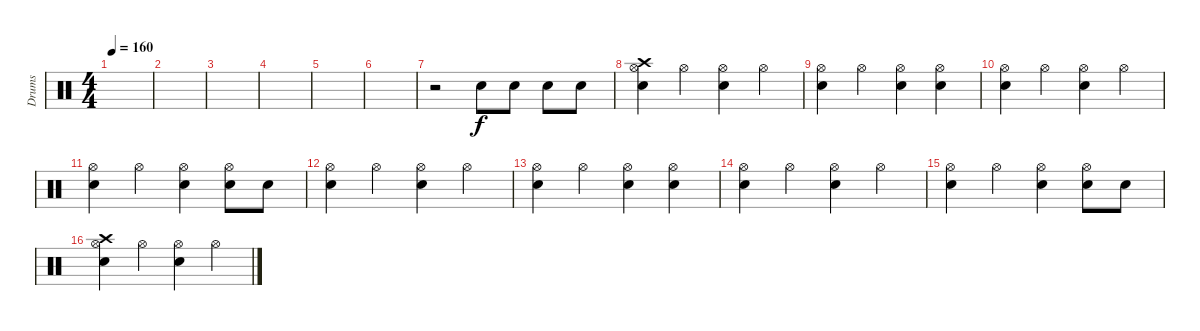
\track ("Drums" "Drums") {instrument percussion}
\staff {score}
\articulation defaults
\ts (4 4)
\tempo 160
\clef neutral
\ks c
|
|
|
|
|
|
r.2 "Electric Snare (hit)".8 "Electric Snare (hit)".8 "Electric Snare (hit)".8 "Electric Snare (hit)".8 |
("Crash high (hit)" "Hi-Hat (open)" "Electric Snare (hit)").4 "Hi-Hat (open)".4 ("Hi-Hat (open)" "Electric Snare (hit)").4 "Hi-Hat (open)".4 |
("Hi-Hat (open)" "Electric Snare (hit)").4 "Hi-Hat (open)".4 ("Hi-Hat (open)" "Electric Snare (hit)").4 ("Hi-Hat (open)" "Electric Snare (hit)").4 |
("Hi-Hat (open)" "Electric Snare (hit)").4 "Hi-Hat (open)".4 ("Hi-Hat (open)" "Electric Snare (hit)").4 "Hi-Hat (open)".4 |
("Hi-Hat (open)" "Electric Snare (hit)").4 "Hi-Hat (open)".4 ("Hi-Hat (open)" "Electric Snare (hit)").4 ("Hi-Hat (open)" "Electric Snare (hit)").8 "Electric Snare (hit)".8 |
("Hi-Hat (open)" "Electric Snare (hit)").4 "Hi-Hat (open)".4 ("Hi-Hat (open)" "Electric Snare (hit)").4 "Hi-Hat (open)".4 |
("Hi-Hat (open)" "Electric Snare (hit)").4 "Hi-Hat (open)".4 ("Hi-Hat (open)" "Electric Snare (hit)").4 ("Hi-Hat (open)" "Electric Snare (hit)").4 |
("Hi-Hat (open)" "Electric Snare (hit)").4 "Hi-Hat (open)".4 ("Hi-Hat (open)" "Electric Snare (hit)").4 "Hi-Hat (open)".4 |
("Hi-Hat (open)" "Electric Snare (hit)").4 "Hi-Hat (open)".4 ("Hi-Hat (open)" "Electric Snare (hit)").4 ("Hi-Hat (open)" "Electric Snare (hit)").8 "Electric Snare (hit)".8 |
("Crash high (hit)" "Hi-Hat (open)" "Electric Snare (hit)").4 "Hi-Hat (open)".4 ("Hi-Hat (open)" "Electric Snare (hit)").4 "Hi-Hat (open)".4
